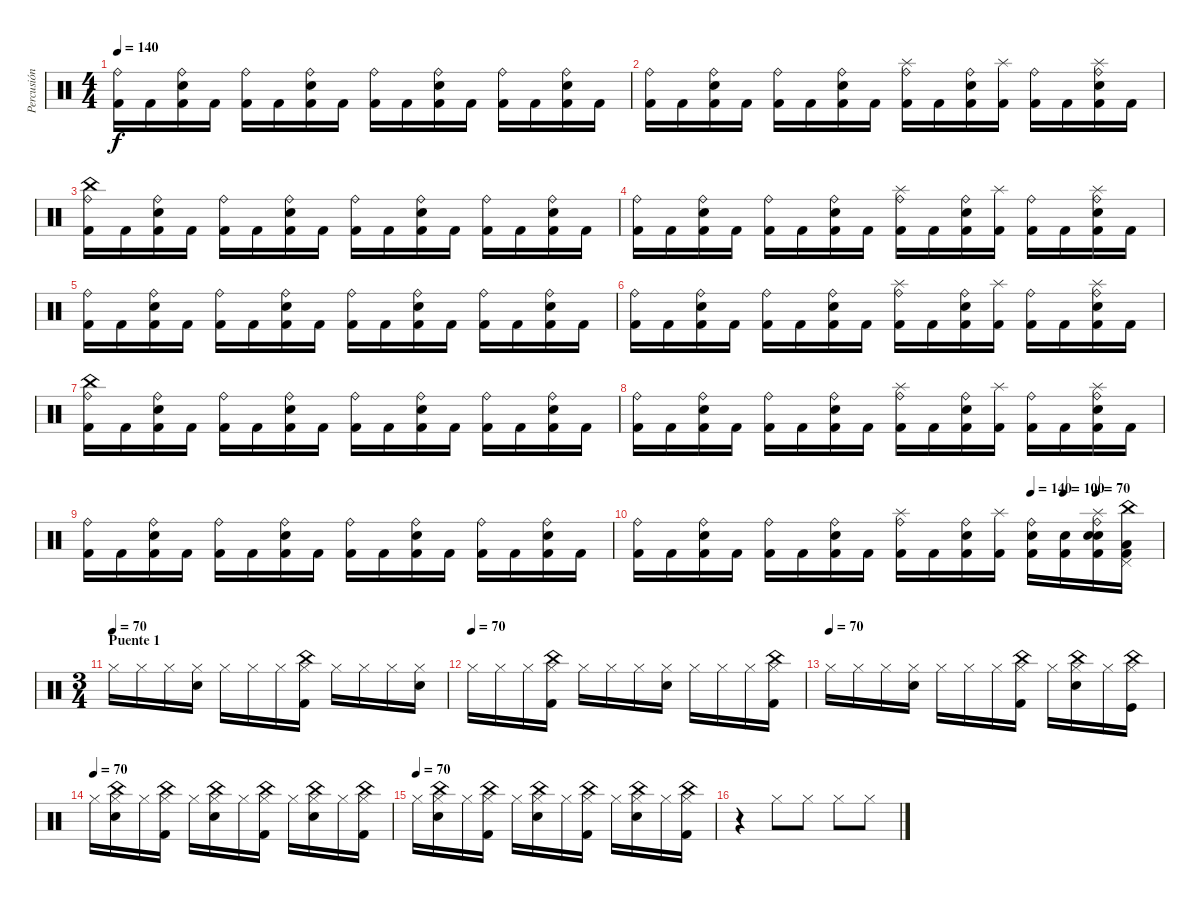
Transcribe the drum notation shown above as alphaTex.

\track ("Percusión" "Percusión") {instrument percussion}
\staff {score}
\articulation defaults
\ts (4 4)
\tempo 140
\clef neutral
\ks c
("Ride (bell)" "Kick (hit) 2").16{dy f} "Kick (hit) 2".16 ("Ride (bell)" "Electric Snare (hit)" "Kick (hit) 2").16 "Kick (hit) 2".16 ("Ride (bell)" "Kick (hit) 2").16 "Kick (hit) 2".16 ("Ride (bell)" "Electric Snare (hit)" "Kick (hit) 2").16 "Kick (hit) 2".16 ("Ride (bell)" "Kick (hit) 2").16 "Kick (hit) 2".16 ("Ride (bell)" "Electric Snare (hit)" "Kick (hit) 2").16 "Kick (hit) 2".16 ("Ride (bell)" "Kick (hit) 2").16 "Kick (hit) 2".16 ("Ride (bell)" "Electric Snare (hit)" "Kick (hit) 2").16 "Kick (hit) 2".16 |
("Ride (bell)" "Kick (hit) 2").16 "Kick (hit) 2".16 ("Ride (bell)" "Electric Snare (hit)" "Kick (hit) 2").16 "Kick (hit) 2".16 ("Ride (bell)" "Kick (hit) 2").16 "Kick (hit) 2".16 ("Ride (bell)" "Electric Snare (hit)" "Kick (hit) 2").16 "Kick (hit) 2".16 ("Ride (bell)" "Kick (hit) 2" "Splash (hit)").16 "Kick (hit) 2".16 ("Ride (bell)" "Electric Snare (hit)" "Kick (hit) 2").16 ("Kick (hit) 2" "Splash (hit)").16 ("Ride (bell)" "Kick (hit) 2").16 "Kick (hit) 2".16 ("Ride (bell)" "Electric Snare (hit)" "Kick (hit) 2" "Splash (hit)").16 "Kick (hit) 2".16 |
("Ride (bell)" "Kick (hit) 2" "China (hit)").16 "Kick (hit) 2".16 ("Ride (bell)" "Electric Snare (hit)" "Kick (hit) 2").16 "Kick (hit) 2".16 ("Ride (bell)" "Kick (hit) 2").16 "Kick (hit) 2".16 ("Ride (bell)" "Electric Snare (hit)" "Kick (hit) 2").16 "Kick (hit) 2".16 ("Ride (bell)" "Kick (hit) 2").16 "Kick (hit) 2".16 ("Ride (bell)" "Electric Snare (hit)" "Kick (hit) 2").16 "Kick (hit) 2".16 ("Ride (bell)" "Kick (hit) 2").16 "Kick (hit) 2".16 ("Ride (bell)" "Electric Snare (hit)" "Kick (hit) 2").16 "Kick (hit) 2".16 |
("Ride (bell)" "Kick (hit) 2").16 "Kick (hit) 2".16 ("Ride (bell)" "Electric Snare (hit)" "Kick (hit) 2").16 "Kick (hit) 2".16 ("Ride (bell)" "Kick (hit) 2").16 "Kick (hit) 2".16 ("Ride (bell)" "Electric Snare (hit)" "Kick (hit) 2").16 "Kick (hit) 2".16 ("Ride (bell)" "Kick (hit) 2" "Splash (hit)").16 "Kick (hit) 2".16 ("Ride (bell)" "Electric Snare (hit)" "Kick (hit) 2").16 ("Kick (hit) 2" "Splash (hit)").16 ("Ride (bell)" "Kick (hit) 2").16 "Kick (hit) 2".16 ("Ride (bell)" "Electric Snare (hit)" "Kick (hit) 2" "Splash (hit)").16 "Kick (hit) 2".16 |
("Ride (bell)" "Kick (hit) 2").16 "Kick (hit) 2".16 ("Ride (bell)" "Electric Snare (hit)" "Kick (hit) 2").16 "Kick (hit) 2".16 ("Ride (bell)" "Kick (hit) 2").16 "Kick (hit) 2".16 ("Ride (bell)" "Electric Snare (hit)" "Kick (hit) 2").16 "Kick (hit) 2".16 ("Ride (bell)" "Kick (hit) 2").16 "Kick (hit) 2".16 ("Ride (bell)" "Electric Snare (hit)" "Kick (hit) 2").16 "Kick (hit) 2".16 ("Ride (bell)" "Kick (hit) 2").16 "Kick (hit) 2".16 ("Ride (bell)" "Electric Snare (hit)" "Kick (hit) 2").16 "Kick (hit) 2".16 |
("Ride (bell)" "Kick (hit) 2").16 "Kick (hit) 2".16 ("Ride (bell)" "Electric Snare (hit)" "Kick (hit) 2").16 "Kick (hit) 2".16 ("Ride (bell)" "Kick (hit) 2").16 "Kick (hit) 2".16 ("Ride (bell)" "Electric Snare (hit)" "Kick (hit) 2").16 "Kick (hit) 2".16 ("Ride (bell)" "Kick (hit) 2" "Splash (hit)").16 "Kick (hit) 2".16 ("Ride (bell)" "Electric Snare (hit)" "Kick (hit) 2").16 ("Kick (hit) 2" "Splash (hit)").16 ("Ride (bell)" "Kick (hit) 2").16 "Kick (hit) 2".16 ("Ride (bell)" "Electric Snare (hit)" "Kick (hit) 2" "Splash (hit)").16 "Kick (hit) 2".16 |
("Ride (bell)" "Kick (hit) 2" "China (hit)").16 "Kick (hit) 2".16 ("Ride (bell)" "Electric Snare (hit)" "Kick (hit) 2").16 "Kick (hit) 2".16 ("Ride (bell)" "Kick (hit) 2").16 "Kick (hit) 2".16 ("Ride (bell)" "Electric Snare (hit)" "Kick (hit) 2").16 "Kick (hit) 2".16 ("Ride (bell)" "Kick (hit) 2").16 "Kick (hit) 2".16 ("Ride (bell)" "Electric Snare (hit)" "Kick (hit) 2").16 "Kick (hit) 2".16 ("Ride (bell)" "Kick (hit) 2").16 "Kick (hit) 2".16 ("Ride (bell)" "Electric Snare (hit)" "Kick (hit) 2").16 "Kick (hit) 2".16 |
("Ride (bell)" "Kick (hit) 2").16 "Kick (hit) 2".16 ("Ride (bell)" "Electric Snare (hit)" "Kick (hit) 2").16 "Kick (hit) 2".16 ("Ride (bell)" "Kick (hit) 2").16 "Kick (hit) 2".16 ("Ride (bell)" "Electric Snare (hit)" "Kick (hit) 2").16 "Kick (hit) 2".16 ("Ride (bell)" "Kick (hit) 2" "Splash (hit)").16 "Kick (hit) 2".16 ("Ride (bell)" "Electric Snare (hit)" "Kick (hit) 2").16 ("Kick (hit) 2" "Splash (hit)").16 ("Ride (bell)" "Kick (hit) 2").16 "Kick (hit) 2".16 ("Ride (bell)" "Electric Snare (hit)" "Kick (hit) 2" "Splash (hit)").16 "Kick (hit) 2".16 |
("Ride (bell)" "Kick (hit) 2").16 "Kick (hit) 2".16 ("Ride (bell)" "Electric Snare (hit)" "Kick (hit) 2").16 "Kick (hit) 2".16 ("Ride (bell)" "Kick (hit) 2").16 "Kick (hit) 2".16 ("Ride (bell)" "Electric Snare (hit)" "Kick (hit) 2").16 "Kick (hit) 2".16 ("Ride (bell)" "Kick (hit) 2").16 "Kick (hit) 2".16 ("Ride (bell)" "Electric Snare (hit)" "Kick (hit) 2").16 "Kick (hit) 2".16 ("Ride (bell)" "Kick (hit) 2").16 "Kick (hit) 2".16 ("Ride (bell)" "Electric Snare (hit)" "Kick (hit) 2").16 "Kick (hit) 2".16 |
\tempo (70 0.875)
\tempo (140 0.75)
\tempo (100 0.8125)
("Ride (bell)" "Kick (hit) 2").16 "Kick (hit) 2".16 ("Ride (bell)" "Electric Snare (hit)" "Kick (hit) 2").16 "Kick (hit) 2".16 ("Ride (bell)" "Kick (hit) 2").16 "Kick (hit) 2".16 ("Ride (bell)" "Electric Snare (hit)" "Kick (hit) 2").16 "Kick (hit) 2".16 ("Ride (bell)" "Kick (hit) 2" "Splash (hit)").16 "Kick (hit) 2".16 ("Ride (bell)" "Electric Snare (hit)" "Kick (hit) 2").16 ("Kick (hit) 2" "Splash (hit)").16 ("Ride (bell)" "Electric Snare (hit)" "Kick (hit) 2").16 ("Electric Snare (hit)" "Kick (hit) 2").16 ("Ride (bell)" "Electric Snare (hit)" "Electric Snare (hit)" "Kick (hit) 2" "Splash (hit)").16 ("Pedal Hi-Hat (hit)" "Low Tom (hit)" "Kick (hit) 2" "China (hit)").16 |
\ts (3 4)
\section ("" "Puente 1")
\tempo (70)
"Hi-Hat (closed)".16 "Hi-Hat (closed)".16 "Hi-Hat (closed)".16 ("Hi-Hat (closed)" "Electric Snare (hit)").16 "Hi-Hat (closed)".16 "Hi-Hat (closed)".16 "Hi-Hat (closed)".16 ("Hi-Hat (closed)" "China (hit)" "Kick (hit) 2").16 "Hi-Hat (closed)".16 "Hi-Hat (closed)".16 "Hi-Hat (closed)".16 ("Hi-Hat (closed)" "Electric Snare (hit)").16 |
\tempo (70)
"Hi-Hat (closed)".16 "Hi-Hat (closed)".16 "Hi-Hat (closed)".16 ("Hi-Hat (closed)" "China (hit)" "Kick (hit) 2").16 "Hi-Hat (closed)".16 "Hi-Hat (closed)".16 "Hi-Hat (closed)".16 ("Hi-Hat (closed)" "Electric Snare (hit)").16 "Hi-Hat (closed)".16 "Hi-Hat (closed)".16 "Hi-Hat (closed)".16 ("Hi-Hat (closed)" "China (hit)" "Kick (hit) 2").16 |
\tempo (70)
"Hi-Hat (closed)".16 "Hi-Hat (closed)".16 "Hi-Hat (closed)".16 ("Hi-Hat (closed)" "Electric Snare (hit)").16 "Hi-Hat (closed)".16 "Hi-Hat (closed)".16 "Hi-Hat (closed)".16 ("Hi-Hat (closed)" "China (hit)" "Kick (hit) 2").16 "Hi-Hat (closed)".16 ("Hi-Hat (closed)" "China (hit)" "Electric Snare (hit)").16 "Hi-Hat (closed)".16 ("Hi-Hat (closed)" "China (hit)" "Kick (hit)").16 |
\tempo (70)
"Hi-Hat (closed)".16 ("Hi-Hat (closed)" "China (hit)" "Electric Snare (hit)").16 "Hi-Hat (closed)".16 ("Hi-Hat (closed)" "China (hit)" "Kick (hit) 2").16 "Hi-Hat (closed)".16 ("Hi-Hat (closed)" "China (hit)" "Electric Snare (hit)").16 "Hi-Hat (closed)".16 ("Hi-Hat (closed)" "China (hit)" "Kick (hit) 2").16 "Hi-Hat (closed)".16 ("Hi-Hat (closed)" "Electric Snare (hit)" "China (hit)").16 "Hi-Hat (closed)".16 ("Hi-Hat (closed)" "China (hit)" "Kick (hit) 2").16 |
\tempo (70)
"Hi-Hat (closed)".16 ("Hi-Hat (closed)" "China (hit)" "Electric Snare (hit)").16 "Hi-Hat (closed)".16 ("Hi-Hat (closed)" "China (hit)" "Kick (hit) 2").16 "Hi-Hat (closed)".16 ("Hi-Hat (closed)" "China (hit)" "Electric Snare (hit)").16 "Hi-Hat (closed)".16 ("Hi-Hat (closed)" "China (hit)" "Kick (hit) 2").16 "Hi-Hat (closed)".16 ("Hi-Hat (closed)" "Electric Snare (hit)" "China (hit)").16 "Hi-Hat (closed)".16 ("Hi-Hat (closed)" "China (hit)" "Kick (hit) 2").16 |
r.4 "Hi-Hat (closed)".8 "Hi-Hat (closed)".8 "Hi-Hat (closed)".8 "Hi-Hat (closed)".8
